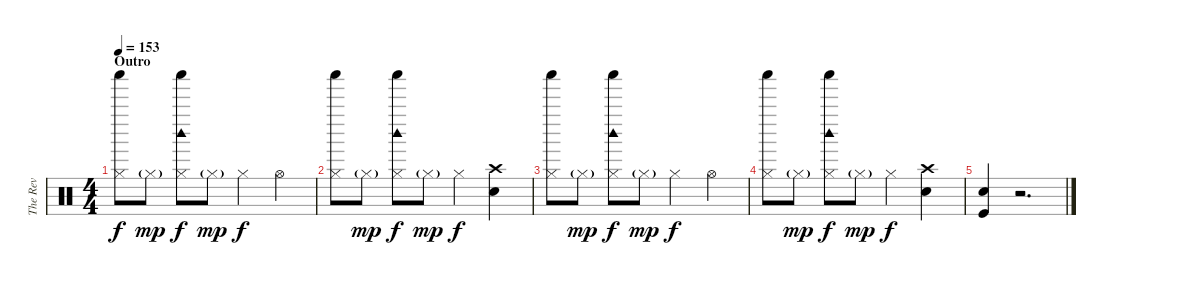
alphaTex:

\track ("The Rev" "The Rev") {instrument percussion}
\staff {score}
\articulation defaults
\ts (4 4)
\section ("" "Outro")
\tempo 153
\clef neutral
\ks c
("Shaker (hit)" "Hi-Hat (closed)").8{dy f} "Hi-Hat (closed)"{g}.8{dy mp} ("Shaker (hit)" "Hi-Hat (closed)" "Woodblock high (hit)").8{dy f} "Hi-Hat (closed)"{g}.8{dy mp} "Hi-Hat (closed)".4{dy f} "Hi-Hat (open)".4 |
("Shaker (hit)" "Hi-Hat (closed)").8 "Hi-Hat (closed)"{g}.8{dy mp} ("Shaker (hit)" "Hi-Hat (closed)" "Woodblock high (hit)").8{dy f} "Hi-Hat (closed)"{g}.8{dy mp} "Hi-Hat (closed)".4{dy f} ("Crash high (hit)" "Electric Snare (hit)").4 |
("Shaker (hit)" "Hi-Hat (closed)").8 "Hi-Hat (closed)"{g}.8{dy mp} ("Shaker (hit)" "Hi-Hat (closed)" "Woodblock high (hit)").8{dy f} "Hi-Hat (closed)"{g}.8{dy mp} "Hi-Hat (closed)".4{dy f} "Hi-Hat (open)".4 |
("Shaker (hit)" "Hi-Hat (closed)").8 "Hi-Hat (closed)"{g}.8{dy mp} ("Shaker (hit)" "Hi-Hat (closed)" "Woodblock high (hit)").8{dy f} "Hi-Hat (closed)"{g}.8{dy mp} "Hi-Hat (closed)".4{dy f} ("Crash high (hit)" "Electric Snare (hit)").4 |
("Electric Snare (hit)" "Kick (hit)").4 r.2{d}
